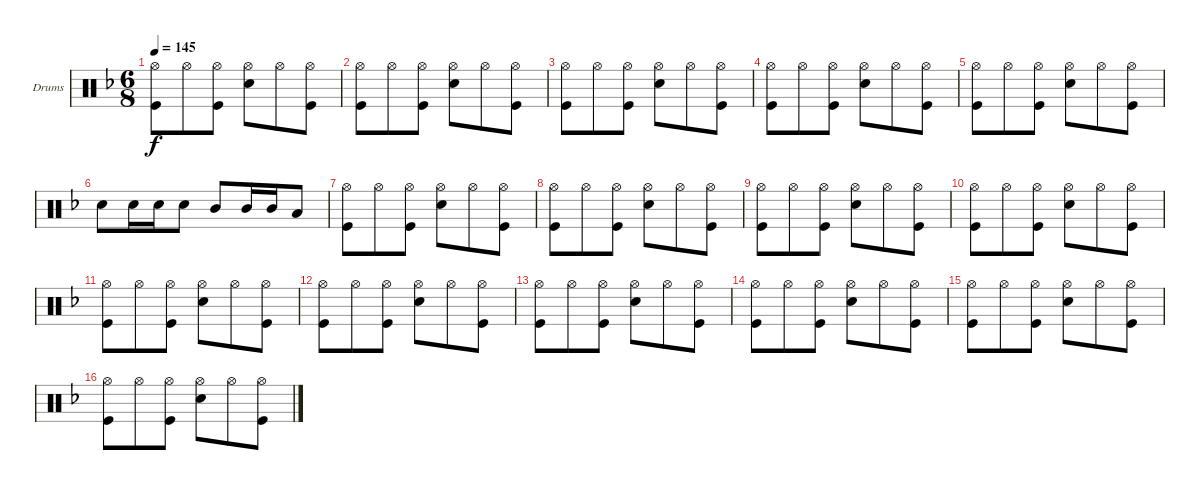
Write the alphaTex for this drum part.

\bracketExtendMode groupsimilarinstruments
\firstSystemTrackNameOrientation horizontal
\otherSystemsTrackNameOrientation horizontal
\track ("Drumkit" "Drums") {instrument percussion}
\staff {score}
\articulation defaults
\ts (6 8)
\tempo 145
\clef neutral
\ks f
("Hi-Hat (open)" "Kick (hit)").8{dy f} "Hi-Hat (open)".8 ("Hi-Hat (open)" "Kick (hit)").8 ("Hi-Hat (open)" "Snare (hit) 2").8 "Hi-Hat (open)".8 ("Hi-Hat (open)" "Kick (hit)").8 |
("Hi-Hat (open)" "Kick (hit)").8 "Hi-Hat (open)".8 ("Hi-Hat (open)" "Kick (hit)").8 ("Hi-Hat (open)" "Snare (hit) 2").8 "Hi-Hat (open)".8 ("Hi-Hat (open)" "Kick (hit)").8 |
("Hi-Hat (open)" "Kick (hit)").8 "Hi-Hat (open)".8 ("Hi-Hat (open)" "Kick (hit)").8 ("Hi-Hat (open)" "Snare (hit) 2").8 "Hi-Hat (open)".8 ("Hi-Hat (open)" "Kick (hit)").8 |
("Hi-Hat (open)" "Kick (hit)").8 "Hi-Hat (open)".8 ("Hi-Hat (open)" "Kick (hit)").8 ("Hi-Hat (open)" "Snare (hit) 2").8 "Hi-Hat (open)".8 ("Hi-Hat (open)" "Kick (hit)").8 |
("Hi-Hat (open)" "Kick (hit)").8 "Hi-Hat (open)".8 ("Hi-Hat (open)" "Kick (hit)").8 ("Hi-Hat (open)" "Snare (hit) 2").8 "Hi-Hat (open)".8 ("Hi-Hat (open)" "Kick (hit)").8 |
"Snare (hit) 2".8 "Snare (hit) 2".16 "Snare (hit) 2".16 "Snare (hit) 2".8 "Mid Tom (hit)".8 "Mid Tom (hit)".16 "Mid Tom (hit)".16 "Low Tom (hit)".8 |
("Hi-Hat (open)" "Kick (hit)").8 "Hi-Hat (open)".8 ("Hi-Hat (open)" "Kick (hit)").8 ("Hi-Hat (open)" "Snare (hit) 2").8 "Hi-Hat (open)".8 ("Hi-Hat (open)" "Kick (hit)").8 |
("Hi-Hat (open)" "Kick (hit)").8 "Hi-Hat (open)".8 ("Hi-Hat (open)" "Kick (hit)").8 ("Hi-Hat (open)" "Snare (hit) 2").8 "Hi-Hat (open)".8 ("Hi-Hat (open)" "Kick (hit)").8 |
("Hi-Hat (open)" "Kick (hit)").8 "Hi-Hat (open)".8 ("Hi-Hat (open)" "Kick (hit)").8 ("Hi-Hat (open)" "Snare (hit) 2").8 "Hi-Hat (open)".8 ("Hi-Hat (open)" "Kick (hit)").8 |
("Hi-Hat (open)" "Kick (hit)").8 "Hi-Hat (open)".8 ("Hi-Hat (open)" "Kick (hit)").8 ("Hi-Hat (open)" "Snare (hit) 2").8 "Hi-Hat (open)".8 ("Hi-Hat (open)" "Kick (hit)").8 |
("Hi-Hat (open)" "Kick (hit)").8 "Hi-Hat (open)".8 ("Hi-Hat (open)" "Kick (hit)").8 ("Hi-Hat (open)" "Snare (hit) 2").8 "Hi-Hat (open)".8 ("Hi-Hat (open)" "Kick (hit)").8 |
("Hi-Hat (open)" "Kick (hit)").8 "Hi-Hat (open)".8 ("Hi-Hat (open)" "Kick (hit)").8 ("Hi-Hat (open)" "Snare (hit) 2").8 "Hi-Hat (open)".8 ("Hi-Hat (open)" "Kick (hit)").8 |
("Hi-Hat (open)" "Kick (hit)").8 "Hi-Hat (open)".8 ("Hi-Hat (open)" "Kick (hit)").8 ("Hi-Hat (open)" "Snare (hit) 2").8 "Hi-Hat (open)".8 ("Hi-Hat (open)" "Kick (hit)").8 |
("Hi-Hat (open)" "Kick (hit)").8 "Hi-Hat (open)".8 ("Hi-Hat (open)" "Kick (hit)").8 ("Hi-Hat (open)" "Snare (hit) 2").8 "Hi-Hat (open)".8 ("Hi-Hat (open)" "Kick (hit)").8 |
("Hi-Hat (open)" "Kick (hit)").8 "Hi-Hat (open)".8 ("Hi-Hat (open)" "Kick (hit)").8 ("Hi-Hat (open)" "Snare (hit) 2").8 "Hi-Hat (open)".8 ("Hi-Hat (open)" "Kick (hit)").8 |
("Hi-Hat (open)" "Kick (hit)").8 "Hi-Hat (open)".8 ("Hi-Hat (open)" "Kick (hit)").8 ("Hi-Hat (open)" "Snare (hit) 2").8 "Hi-Hat (open)".8 ("Hi-Hat (open)" "Kick (hit)").8
